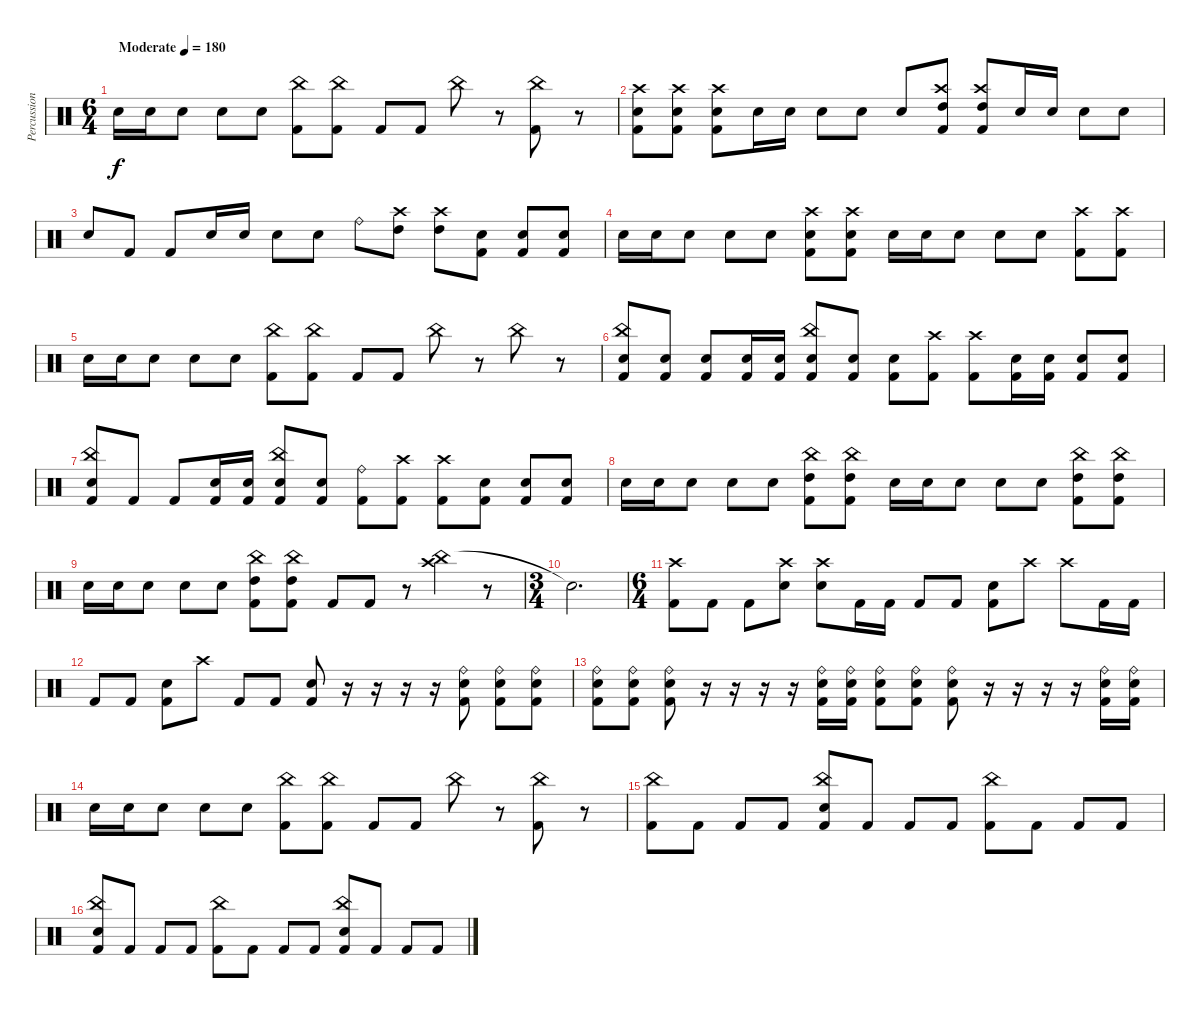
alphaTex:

\track ("Percussion" "Percussion") {instrument percussion}
\staff {score}
\articulation defaults
\ts (6 4)
\tempo (180 "Moderate")
\clef neutral
\ks c "Electric Snare (hit)".16{dy f} "Electric Snare (hit)".16 "Electric Snare (hit)".8 "Electric Snare (hit)".8 "Electric Snare (hit)".8
("China (hit)" "Kick (hit) 2").8 ("China (hit)" "Kick (hit) 2").8 "Kick (hit) 2".8 "Kick (hit) 2".8 "China (hit)".8 r.8 ("China (hit)" "Kick (hit) 2").8 r.8 |
("Crash high (hit)" "Electric Snare (hit)" "Kick (hit) 2").8 ("Crash high (hit)" "Electric Snare (hit)" "Kick (hit) 2").8 ("Crash high (hit)" "Electric Snare (hit)" "Kick (hit) 2").8 "Electric Snare (hit)".16 "Electric Snare (hit)".16 "Electric Snare (hit)".8 "Electric Snare (hit)".8 "Electric Snare (hit)".8 ("Crash high (hit)" "High Tom (hit)" "Kick (hit) 2").8 ("Crash high (hit)" "High Tom (hit)" "Kick (hit) 2").8 "Electric Snare (hit)".16 "Electric Snare (hit)".16 "Electric Snare (hit)".8 "Electric Snare (hit)".8 |
"Electric Snare (hit)".8 "Kick (hit) 2".8 "Kick (hit) 2".8 "Electric Snare (hit)".16 "Electric Snare (hit)".16 "Electric Snare (hit)".8 "Electric Snare (hit)".8 "Ride (bell)".8 ("Crash high (hit)" "High Tom (hit)").8 ("Crash high (hit)" "High Tom (hit)").8 ("Electric Snare (hit)" "Kick (hit) 2").8 ("Electric Snare (hit)" "Kick (hit) 2").8 ("Electric Snare (hit)" "Kick (hit) 2").8 |
"Electric Snare (hit)".16 "Electric Snare (hit)".16 "Electric Snare (hit)".8 "Electric Snare (hit)".8 "Electric Snare (hit)".8 ("Crash high (hit)" "Electric Snare (hit)" "Kick (hit) 2").8 ("Crash high (hit)" "Electric Snare (hit)" "Kick (hit) 2").8 "Electric Snare (hit)".16 "Electric Snare (hit)".16 "Electric Snare (hit)".8 "Electric Snare (hit)".8 "Electric Snare (hit)".8 ("Crash high (hit)" "Kick (hit) 2").8 ("Crash high (hit)" "Kick (hit) 2").8 |
"Electric Snare (hit)".16 "Electric Snare (hit)".16 "Electric Snare (hit)".8 "Electric Snare (hit)".8 "Electric Snare (hit)".8 ("China (hit)" "Kick (hit) 2").8 ("China (hit)" "Kick (hit) 2").8 "Kick (hit) 2".8 "Kick (hit) 2".8 "China (hit)".8 r.8 "China (hit)".8 r.8 |
("China (hit)" "Electric Snare (hit)" "Kick (hit) 2").8 ("Electric Snare (hit)" "Kick (hit) 2").8 ("Electric Snare (hit)" "Kick (hit) 2").8 ("Electric Snare (hit)" "Kick (hit) 2").16 ("Electric Snare (hit)" "Kick (hit) 2").16 ("China (hit)" "Electric Snare (hit)" "Kick (hit) 2").8 ("Electric Snare (hit)" "Kick (hit) 2").8 ("Electric Snare (hit)" "Kick (hit) 2").8 ("Crash high (hit)" "Kick (hit) 2").8 ("Crash high (hit)" "Kick (hit) 2").8 ("Electric Snare (hit)" "Kick (hit) 2").16 ("Electric Snare (hit)" "Kick (hit) 2").16 ("Electric Snare (hit)" "Kick (hit) 2").8 ("Electric Snare (hit)" "Kick (hit) 2").8 |
("China (hit)" "Electric Snare (hit)" "Kick (hit) 2").8 "Kick (hit) 2".8 "Kick (hit) 2".8 ("Electric Snare (hit)" "Kick (hit) 2").16 ("Electric Snare (hit)" "Kick (hit) 2").16 ("China (hit)" "Electric Snare (hit)" "Kick (hit) 2").8 ("Electric Snare (hit)" "Kick (hit) 2").8 ("Ride (bell)" "Kick (hit) 2").8 ("Crash high (hit)" "Kick (hit) 2").8 ("Crash high (hit)" "Kick (hit) 2").8 ("Electric Snare (hit)" "Kick (hit) 2").8 ("Electric Snare (hit)" "Kick (hit) 2").8 ("Electric Snare (hit)" "Kick (hit) 2").8 |
"Electric Snare (hit)".16 "Electric Snare (hit)".16 "Electric Snare (hit)".8 "Electric Snare (hit)".8 "Electric Snare (hit)".8 ("China (hit)" "High Tom (hit)" "Kick (hit) 2").8 ("China (hit)" "High Tom (hit)" "Kick (hit) 2").8 "Electric Snare (hit)".16 "Electric Snare (hit)".16 "Electric Snare (hit)".8 "Electric Snare (hit)".8 "Electric Snare (hit)".8 ("China (hit)" "High Tom (hit)" "Kick (hit) 2").8 ("China (hit)" "High Tom (hit)" "Kick (hit) 2").8 |
"Electric Snare (hit)".16 "Electric Snare (hit)".16 "Electric Snare (hit)".8 "Electric Snare (hit)".8 "Electric Snare (hit)".8 ("China (hit)" "High Tom (hit)" "Kick (hit) 2").8 ("China (hit)" "High Tom (hit)" "Kick (hit) 2").8 "Kick (hit) 2".8 "Kick (hit) 2".8 r.8 ("China (hit)" "Crash high (hit)").4 r.8 |
\ts (3 4)
"Snare (hit)"{t}.2{d} |
\ts (6 4)
("Crash high (hit)" "Kick (hit) 2").8 "Kick (hit) 2".8 "Kick (hit) 2".8 ("Crash high (hit)" "Electric Snare (hit)").8 ("Crash high (hit)" "Electric Snare (hit)").8 "Kick (hit) 2".16 "Kick (hit) 2".16 "Kick (hit) 2".8 "Kick (hit) 2".8 ("Electric Snare (hit)" "Kick (hit) 2").8 "Crash high (hit)".8 "Crash high (hit)".8 "Kick (hit) 2".16 "Kick (hit) 2".16 |
"Kick (hit) 2".8 "Kick (hit) 2".8 ("Electric Snare (hit)" "Kick (hit) 2").8 "Crash high (hit)".8 "Kick (hit) 2".8 "Kick (hit) 2".8 ("Electric Snare (hit)" "Kick (hit) 2").8 r.16 r.16 r.16 r.16 ("Ride (bell)" "Electric Snare (hit)" "Kick (hit) 2").8 ("Ride (bell)" "Electric Snare (hit)" "Kick (hit) 2").8 ("Ride (bell)" "Electric Snare (hit)" "Kick (hit) 2").8 |
("Ride (bell)" "Electric Snare (hit)" "Kick (hit) 2").8 ("Ride (bell)" "Electric Snare (hit)" "Kick (hit) 2").8 ("Ride (bell)" "Electric Snare (hit)" "Kick (hit) 2").8 r.16 r.16 r.16 r.16 ("Ride (bell)" "Electric Snare (hit)" "Kick (hit) 2").16 ("Ride (bell)" "Electric Snare (hit)" "Kick (hit) 2").16 ("Ride (bell)" "Electric Snare (hit)" "Kick (hit) 2").8 ("Ride (bell)" "Electric Snare (hit)" "Kick (hit) 2").8 ("Ride (bell)" "Electric Snare (hit)" "Kick (hit) 2").8 r.16 r.16 r.16 r.16 ("Ride (bell)" "Electric Snare (hit)" "Kick (hit) 2").16 ("Ride (bell)" "Electric Snare (hit)" "Kick (hit) 2").16 |
"Electric Snare (hit)".16 "Electric Snare (hit)".16 "Electric Snare (hit)".8 "Electric Snare (hit)".8 "Electric Snare (hit)".8 ("China (hit)" "Kick (hit) 2").8 ("China (hit)" "Kick (hit) 2").8 "Kick (hit) 2".8 "Kick (hit) 2".8 "China (hit)".8 r.8 ("China (hit)" "Kick (hit) 2").8 r.8 |
("China (hit)" "Kick (hit) 2").8 "Kick (hit) 2".8 "Kick (hit) 2".8 "Kick (hit) 2".8 ("China (hit)" "Electric Snare (hit)" "Kick (hit) 2").8 "Kick (hit) 2".8 "Kick (hit) 2".8 "Kick (hit) 2".8 ("China (hit)" "Kick (hit) 2").8 "Kick (hit) 2".8 "Kick (hit) 2".8 "Kick (hit) 2".8 |
("China (hit)" "Electric Snare (hit)" "Kick (hit) 2").8 "Kick (hit) 2".8 "Kick (hit) 2".8 "Kick (hit) 2".8 ("China (hit)" "Kick (hit) 2").8 "Kick (hit) 2".8 "Kick (hit) 2".8 "Kick (hit) 2".8 ("China (hit)" "Electric Snare (hit)" "Kick (hit) 2").8 "Kick (hit) 2".8 "Kick (hit) 2".8 "Kick (hit) 2".8
